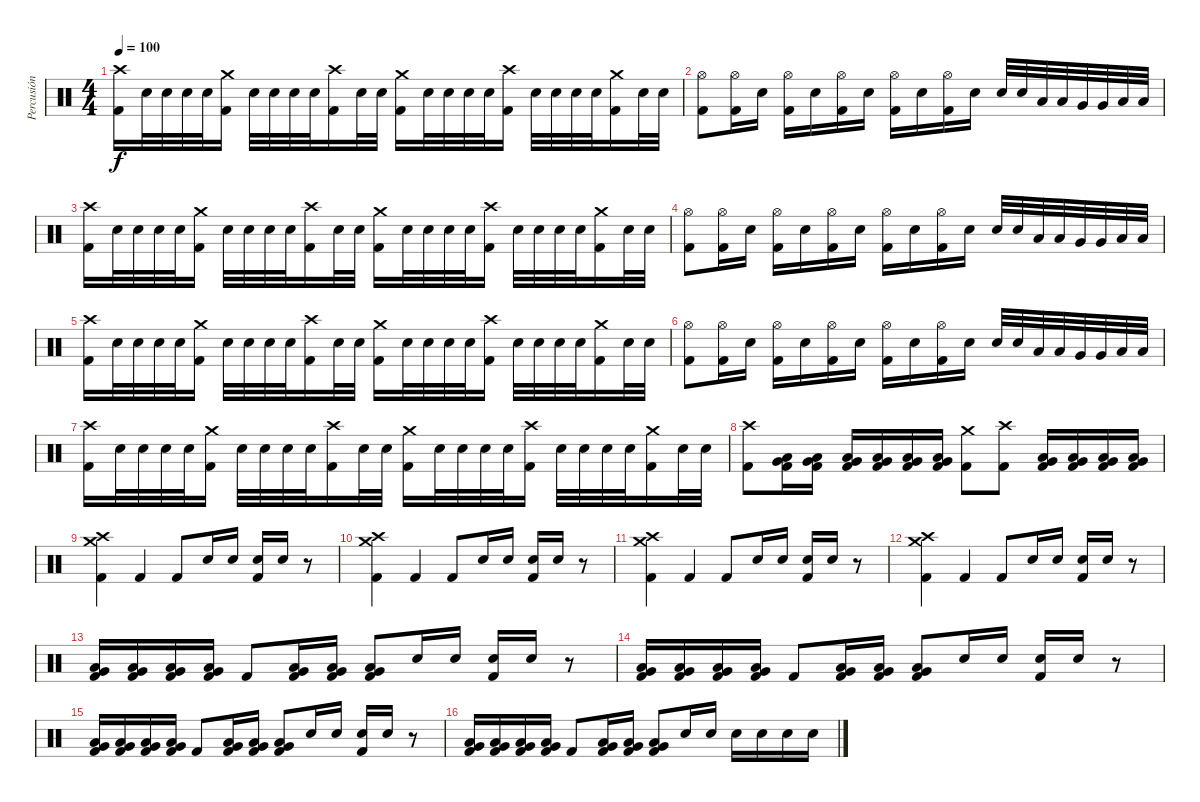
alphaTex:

\track ("Percusión" "Percusión") {instrument percussion}
\staff {score}
\articulation defaults
\ts (4 4)
\tempo 100
\clef neutral
\ks c
("Crash high (hit)" "Kick (hit) 2").16{dy f} "Snare (hit) 2".32 "Snare (hit) 2".32 "Snare (hit) 2".32 "Snare (hit) 2".32 ("Crash medium (hit)" "Kick (hit) 2").16 "Snare (hit) 2".32 "Snare (hit) 2".32 "Snare (hit) 2".32 "Snare (hit) 2".32 ("Crash high (hit)" "Kick (hit) 2").16 "Snare (hit) 2".32 "Snare (hit) 2".32 ("Crash medium (hit)" "Kick (hit) 2").16 "Snare (hit) 2".32 "Snare (hit) 2".32 "Snare (hit) 2".32 "Snare (hit) 2".32 ("Crash high (hit)" "Kick (hit) 2").16 "Snare (hit) 2".32 "Snare (hit) 2".32 "Snare (hit) 2".32 "Snare (hit) 2".32 ("Kick (hit) 2" "Crash medium (hit)").16 "Snare (hit) 2".32 "Snare (hit) 2".32 |
("Hi-Hat (open)" "Kick (hit) 2").8 ("Hi-Hat (open)" "Kick (hit) 2").16 "Snare (hit) 2".16 ("Hi-Hat (open)" "Kick (hit) 2").16 "Snare (hit) 2".16 ("Hi-Hat (open)" "Kick (hit) 2").16 "Snare (hit) 2".16 ("Hi-Hat (open)" "Kick (hit) 2").16 "Snare (hit) 2".16 ("Hi-Hat (open)" "Kick (hit) 2").16 "Snare (hit) 2".16 "Snare (hit) 2".32 "Snare (hit) 2".32 "Low Tom (hit)".32 "Low Tom (hit)".32 "Very Low Tom (hit)".32 "Very Low Tom (hit)".32 "Low Floor Tom (hit)".32 "Low Floor Tom (hit)".32 |
("Crash high (hit)" "Kick (hit) 2").16 "Snare (hit) 2".32 "Snare (hit) 2".32 "Snare (hit) 2".32 "Snare (hit) 2".32 ("Crash medium (hit)" "Kick (hit) 2").16 "Snare (hit) 2".32 "Snare (hit) 2".32 "Snare (hit) 2".32 "Snare (hit) 2".32 ("Crash high (hit)" "Kick (hit) 2").16 "Snare (hit) 2".32 "Snare (hit) 2".32 ("Crash medium (hit)" "Kick (hit) 2").16 "Snare (hit) 2".32 "Snare (hit) 2".32 "Snare (hit) 2".32 "Snare (hit) 2".32 ("Crash high (hit)" "Kick (hit) 2").16 "Snare (hit) 2".32 "Snare (hit) 2".32 "Snare (hit) 2".32 "Snare (hit) 2".32 ("Kick (hit) 2" "Crash medium (hit)").16 "Snare (hit) 2".32 "Snare (hit) 2".32 |
("Hi-Hat (open)" "Kick (hit) 2").8 ("Hi-Hat (open)" "Kick (hit) 2").16 "Snare (hit) 2".16 ("Hi-Hat (open)" "Kick (hit) 2").16 "Snare (hit) 2".16 ("Hi-Hat (open)" "Kick (hit) 2").16 "Snare (hit) 2".16 ("Hi-Hat (open)" "Kick (hit) 2").16 "Snare (hit) 2".16 ("Hi-Hat (open)" "Kick (hit) 2").16 "Snare (hit) 2".16 "Snare (hit) 2".32 "Snare (hit) 2".32 "Low Tom (hit)".32 "Low Tom (hit)".32 "Very Low Tom (hit)".32 "Very Low Tom (hit)".32 "Low Floor Tom (hit)".32 "Low Floor Tom (hit)".32 |
("Crash high (hit)" "Kick (hit) 2").16 "Snare (hit) 2".32 "Snare (hit) 2".32 "Snare (hit) 2".32 "Snare (hit) 2".32 ("Crash medium (hit)" "Kick (hit) 2").16 "Snare (hit) 2".32 "Snare (hit) 2".32 "Snare (hit) 2".32 "Snare (hit) 2".32 ("Crash high (hit)" "Kick (hit) 2").16 "Snare (hit) 2".32 "Snare (hit) 2".32 ("Crash medium (hit)" "Kick (hit) 2").16 "Snare (hit) 2".32 "Snare (hit) 2".32 "Snare (hit) 2".32 "Snare (hit) 2".32 ("Crash high (hit)" "Kick (hit) 2").16 "Snare (hit) 2".32 "Snare (hit) 2".32 "Snare (hit) 2".32 "Snare (hit) 2".32 ("Kick (hit) 2" "Crash medium (hit)").16 "Snare (hit) 2".32 "Snare (hit) 2".32 |
("Hi-Hat (open)" "Kick (hit) 2").8 ("Hi-Hat (open)" "Kick (hit) 2").16 "Snare (hit) 2".16 ("Hi-Hat (open)" "Kick (hit) 2").16 "Snare (hit) 2".16 ("Hi-Hat (open)" "Kick (hit) 2").16 "Snare (hit) 2".16 ("Hi-Hat (open)" "Kick (hit) 2").16 "Snare (hit) 2".16 ("Hi-Hat (open)" "Kick (hit) 2").16 "Snare (hit) 2".16 "Snare (hit) 2".32 "Snare (hit) 2".32 "Low Tom (hit)".32 "Low Tom (hit)".32 "Very Low Tom (hit)".32 "Very Low Tom (hit)".32 "Low Floor Tom (hit)".32 "Low Floor Tom (hit)".32 |
("Crash high (hit)" "Kick (hit) 2").16 "Snare (hit) 2".32 "Snare (hit) 2".32 "Snare (hit) 2".32 "Snare (hit) 2".32 ("Crash medium (hit)" "Kick (hit) 2").16 "Snare (hit) 2".32 "Snare (hit) 2".32 "Snare (hit) 2".32 "Snare (hit) 2".32 ("Crash high (hit)" "Kick (hit) 2").16 "Snare (hit) 2".32 "Snare (hit) 2".32 ("Crash medium (hit)" "Kick (hit) 2").16 "Snare (hit) 2".32 "Snare (hit) 2".32 "Snare (hit) 2".32 "Snare (hit) 2".32 ("Crash high (hit)" "Kick (hit) 2").16 "Snare (hit) 2".32 "Snare (hit) 2".32 "Snare (hit) 2".32 "Snare (hit) 2".32 ("Kick (hit) 2" "Crash medium (hit)").16 "Snare (hit) 2".32 "Snare (hit) 2".32 |
("Kick (hit) 2" "Crash high (hit)").8 ("Low Floor Tom (hit)" "Very Low Tom (hit)" "Kick (hit) 2").16 ("Low Floor Tom (hit)" "Very Low Tom (hit)" "Kick (hit) 2").16 ("Low Floor Tom (hit)" "Very Low Tom (hit)" "Kick (hit) 2").16 ("Low Floor Tom (hit)" "Very Low Tom (hit)" "Kick (hit) 2").16 ("Low Floor Tom (hit)" "Very Low Tom (hit)" "Kick (hit) 2").16 ("Low Floor Tom (hit)" "Very Low Tom (hit)" "Kick (hit) 2").16 ("Crash medium (hit)" "Kick (hit) 2").8 ("Crash high (hit)" "Kick (hit) 2").8 ("Low Floor Tom (hit)" "Very Low Tom (hit)" "Kick (hit) 2").16 ("Low Floor Tom (hit)" "Very Low Tom (hit)" "Kick (hit) 2").16 ("Low Floor Tom (hit)" "Very Low Tom (hit)" "Kick (hit) 2").16 ("Low Floor Tom (hit)" "Very Low Tom (hit)" "Kick (hit) 2").16 |
("Kick (hit) 2" "Crash high (hit)" "Crash medium (hit)").4 "Kick (hit) 2".4 "Kick (hit) 2".8 "Snare (hit) 2".16 "Snare (hit) 2".16 ("Kick (hit) 2" "Snare (hit) 2").16 "Snare (hit) 2".16 r.8 |
("Kick (hit) 2" "Crash high (hit)" "Crash medium (hit)").4 "Kick (hit) 2".4 "Kick (hit) 2".8 "Snare (hit) 2".16 "Snare (hit) 2".16 ("Kick (hit) 2" "Snare (hit) 2").16 "Snare (hit) 2".16 r.8 |
("Kick (hit) 2" "Crash high (hit)" "Crash medium (hit)").4 "Kick (hit) 2".4 "Kick (hit) 2".8 "Snare (hit) 2".16 "Snare (hit) 2".16 ("Kick (hit) 2" "Snare (hit) 2").16 "Snare (hit) 2".16 r.8 |
("Kick (hit) 2" "Crash high (hit)" "Crash medium (hit)").4 "Kick (hit) 2".4 "Kick (hit) 2".8 "Snare (hit) 2".16 "Snare (hit) 2".16 ("Kick (hit) 2" "Snare (hit) 2").16 "Snare (hit) 2".16 r.8 |
("Kick (hit) 2" "Very Low Tom (hit)" "Low Floor Tom (hit)").16 ("Kick (hit) 2" "Very Low Tom (hit)" "Low Floor Tom (hit)").16 ("Kick (hit) 2" "Very Low Tom (hit)" "Low Floor Tom (hit)").16 ("Kick (hit) 2" "Very Low Tom (hit)" "Low Floor Tom (hit)").16 "Kick (hit) 2".8 ("Low Floor Tom (hit)" "Very Low Tom (hit)" "Kick (hit) 2").16 ("Low Floor Tom (hit)" "Very Low Tom (hit)" "Kick (hit) 2").16 ("Low Floor Tom (hit)" "Very Low Tom (hit)" "Kick (hit) 2").8 "Snare (hit) 2".16 "Snare (hit) 2".16 ("Kick (hit) 2" "Snare (hit) 2").16 "Snare (hit) 2".16 r.8 |
("Kick (hit) 2" "Very Low Tom (hit)" "Low Floor Tom (hit)").16 ("Kick (hit) 2" "Very Low Tom (hit)" "Low Floor Tom (hit)").16 ("Kick (hit) 2" "Very Low Tom (hit)" "Low Floor Tom (hit)").16 ("Kick (hit) 2" "Very Low Tom (hit)" "Low Floor Tom (hit)").16 "Kick (hit) 2".8 ("Low Floor Tom (hit)" "Very Low Tom (hit)" "Kick (hit) 2").16 ("Low Floor Tom (hit)" "Very Low Tom (hit)" "Kick (hit) 2").16 ("Low Floor Tom (hit)" "Very Low Tom (hit)" "Kick (hit) 2").8 "Snare (hit) 2".16 "Snare (hit) 2".16 ("Kick (hit) 2" "Snare (hit) 2").16 "Snare (hit) 2".16 r.8 |
("Kick (hit) 2" "Very Low Tom (hit)" "Low Floor Tom (hit)").16 ("Kick (hit) 2" "Very Low Tom (hit)" "Low Floor Tom (hit)").16 ("Kick (hit) 2" "Very Low Tom (hit)" "Low Floor Tom (hit)").16 ("Kick (hit) 2" "Very Low Tom (hit)" "Low Floor Tom (hit)").16 "Kick (hit) 2".8 ("Low Floor Tom (hit)" "Very Low Tom (hit)" "Kick (hit) 2").16 ("Low Floor Tom (hit)" "Very Low Tom (hit)" "Kick (hit) 2").16 ("Low Floor Tom (hit)" "Very Low Tom (hit)" "Kick (hit) 2").8 "Snare (hit) 2".16 "Snare (hit) 2".16 ("Kick (hit) 2" "Snare (hit) 2").16 "Snare (hit) 2".16 r.8 |
("Kick (hit) 2" "Very Low Tom (hit)" "Low Floor Tom (hit)").16 ("Kick (hit) 2" "Very Low Tom (hit)" "Low Floor Tom (hit)").16 ("Kick (hit) 2" "Very Low Tom (hit)" "Low Floor Tom (hit)").16 ("Kick (hit) 2" "Very Low Tom (hit)" "Low Floor Tom (hit)").16 "Kick (hit) 2".8 ("Low Floor Tom (hit)" "Very Low Tom (hit)" "Kick (hit) 2").16 ("Low Floor Tom (hit)" "Very Low Tom (hit)" "Kick (hit) 2").16 ("Low Floor Tom (hit)" "Very Low Tom (hit)" "Kick (hit) 2").8 "Snare (hit) 2".16 "Snare (hit) 2".16 "Snare (hit) 2".16 "Snare (hit) 2".16 "Snare (hit) 2".16 "Snare (hit) 2".16
